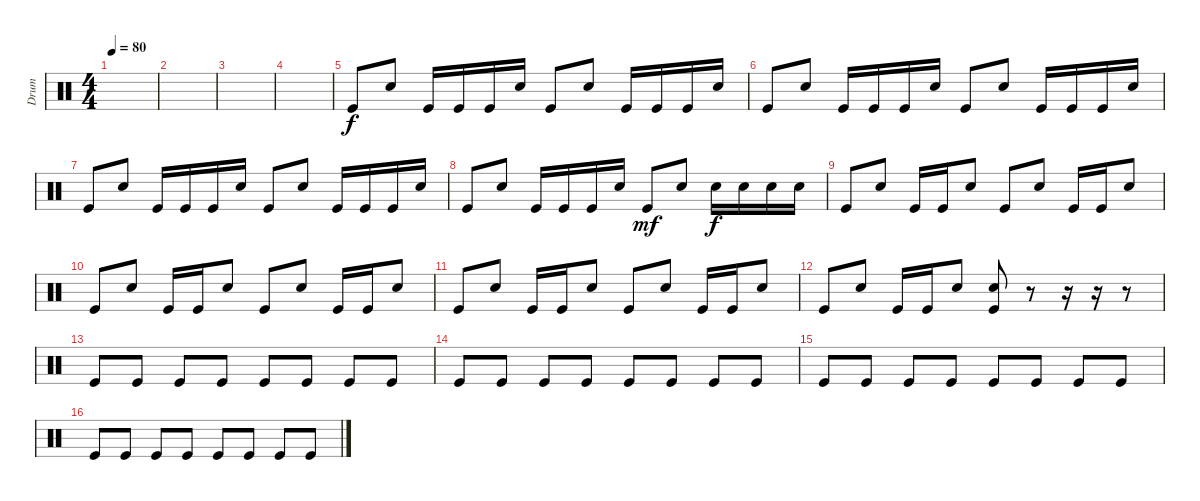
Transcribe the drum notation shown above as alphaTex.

\track ("Drum" "Drum") {instrument percussion}
\staff {score}
\articulation defaults
\ts (4 4)
\tempo 80
\clef neutral
\ks c
|
|
|
|
"Kick (hit)".8 "Electric Snare (hit)".8 "Kick (hit)".16 "Kick (hit)".16 "Kick (hit)".16 "Electric Snare (hit)".16 "Kick (hit)".8 "Electric Snare (hit)".8 "Kick (hit)".16 "Kick (hit)".16 "Kick (hit)".16 "Electric Snare (hit)".16 |
"Kick (hit)".8 "Electric Snare (hit)".8 "Kick (hit)".16 "Kick (hit)".16 "Kick (hit)".16 "Electric Snare (hit)".16 "Kick (hit)".8 "Electric Snare (hit)".8 "Kick (hit)".16 "Kick (hit)".16 "Kick (hit)".16 "Electric Snare (hit)".16 |
"Kick (hit)".8 "Electric Snare (hit)".8 "Kick (hit)".16 "Kick (hit)".16 "Kick (hit)".16 "Electric Snare (hit)".16 "Kick (hit)".8 "Electric Snare (hit)".8 "Kick (hit)".16 "Kick (hit)".16 "Kick (hit)".16 "Electric Snare (hit)".16 |
"Kick (hit)".8 "Electric Snare (hit)".8 "Kick (hit)".16 "Kick (hit)".16 "Kick (hit)".16 "Electric Snare (hit)".16 "Kick (hit)".8{dy mf} "Electric Snare (hit)".8 "Electric Snare (hit)".16{dy f} "Electric Snare (hit)".16 "Electric Snare (hit)".16 "Electric Snare (hit)".16 |
"Kick (hit)".8 "Electric Snare (hit)".8 "Kick (hit)".16 "Kick (hit)".16 "Electric Snare (hit)".8 "Kick (hit)".8 "Electric Snare (hit)".8 "Kick (hit)".16 "Kick (hit)".16 "Electric Snare (hit)".8 |
"Kick (hit)".8 "Electric Snare (hit)".8 "Kick (hit)".16 "Kick (hit)".16 "Electric Snare (hit)".8 "Kick (hit)".8 "Electric Snare (hit)".8 "Kick (hit)".16 "Kick (hit)".16 "Electric Snare (hit)".8 |
"Kick (hit)".8 "Electric Snare (hit)".8 "Kick (hit)".16 "Kick (hit)".16 "Electric Snare (hit)".8 "Kick (hit)".8 "Electric Snare (hit)".8 "Kick (hit)".16 "Kick (hit)".16 "Electric Snare (hit)".8 |
"Kick (hit)".8 "Electric Snare (hit)".8 "Kick (hit)".16 "Kick (hit)".16 "Electric Snare (hit)".8 ("Electric Snare (hit)" "Kick (hit)").8 r.8 r.16 r.16 r.8 |
"Kick (hit)".8 "Kick (hit)".8 "Kick (hit)".8 "Kick (hit)".8 "Kick (hit)".8 "Kick (hit)".8 "Kick (hit)".8 "Kick (hit)".8 |
"Kick (hit)".8 "Kick (hit)".8 "Kick (hit)".8 "Kick (hit)".8 "Kick (hit)".8 "Kick (hit)".8 "Kick (hit)".8 "Kick (hit)".8 |
"Kick (hit)".8 "Kick (hit)".8 "Kick (hit)".8 "Kick (hit)".8 "Kick (hit)".8 "Kick (hit)".8 "Kick (hit)".8 "Kick (hit)".8 |
"Kick (hit)".8 "Kick (hit)".8 "Kick (hit)".8 "Kick (hit)".8 "Kick (hit)".8 "Kick (hit)".8 "Kick (hit)".8 "Kick (hit)".8
